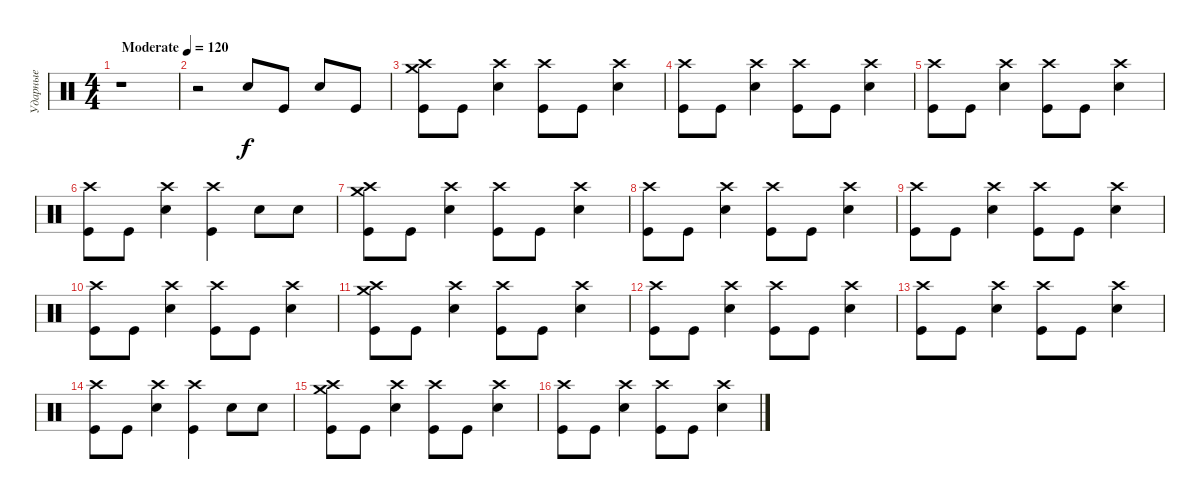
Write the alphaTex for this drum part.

\track ("Ударные" "Ударные") {instrument percussion}
\staff {score}
\articulation defaults
\ts (4 4)
\tempo (120 "Moderate")
\clef neutral
\ks c
r.1{dy f} |
r.2 "Snare (hit) 2".8 "Kick (hit)".8 "Snare (hit) 2".8 "Kick (hit)".8 |
("Crash medium (hit)" "Crash high (hit)" "Kick (hit)").8 "Kick (hit)".8 ("Crash high (hit)" "Snare (hit) 2").4 ("Crash high (hit)" "Kick (hit)").8 "Kick (hit)".8 ("Crash high (hit)" "Snare (hit) 2").4 |
("Crash high (hit)" "Kick (hit)").8 "Kick (hit)".8 ("Crash high (hit)" "Snare (hit) 2").4 ("Crash high (hit)" "Kick (hit)").8 "Kick (hit)".8 ("Crash high (hit)" "Snare (hit) 2").4 |
("Crash high (hit)" "Kick (hit)").8 "Kick (hit)".8 ("Crash high (hit)" "Snare (hit) 2").4 ("Crash high (hit)" "Kick (hit)").8 "Kick (hit)".8 ("Crash high (hit)" "Snare (hit) 2").4 |
("Crash high (hit)" "Kick (hit)").8 "Kick (hit)".8 ("Crash high (hit)" "Snare (hit) 2").4 ("Crash high (hit)" "Kick (hit)").4 "Snare (hit) 2".8 "Snare (hit) 2".8 |
("Crash medium (hit)" "Crash high (hit)" "Kick (hit)").8 "Kick (hit)".8 ("Crash high (hit)" "Snare (hit) 2").4 ("Crash high (hit)" "Kick (hit)").8 "Kick (hit)".8 ("Crash high (hit)" "Snare (hit) 2").4 |
("Crash high (hit)" "Kick (hit)").8 "Kick (hit)".8 ("Crash high (hit)" "Snare (hit) 2").4 ("Crash high (hit)" "Kick (hit)").8 "Kick (hit)".8 ("Crash high (hit)" "Snare (hit) 2").4 |
("Crash high (hit)" "Kick (hit)").8 "Kick (hit)".8 ("Crash high (hit)" "Snare (hit) 2").4 ("Crash high (hit)" "Kick (hit)").8 "Kick (hit)".8 ("Crash high (hit)" "Snare (hit) 2").4 |
("Crash high (hit)" "Kick (hit)").8 "Kick (hit)".8 ("Crash high (hit)" "Snare (hit) 2").4 ("Crash high (hit)" "Kick (hit)").8 "Kick (hit)".8 ("Crash high (hit)" "Snare (hit) 2").4 |
("Crash medium (hit)" "Crash high (hit)" "Kick (hit)").8 "Kick (hit)".8 ("Crash high (hit)" "Snare (hit) 2").4 ("Crash high (hit)" "Kick (hit)").8 "Kick (hit)".8 ("Crash high (hit)" "Snare (hit) 2").4 |
("Crash high (hit)" "Kick (hit)").8 "Kick (hit)".8 ("Crash high (hit)" "Snare (hit) 2").4 ("Crash high (hit)" "Kick (hit)").8 "Kick (hit)".8 ("Crash high (hit)" "Snare (hit) 2").4 |
("Crash high (hit)" "Kick (hit)").8 "Kick (hit)".8 ("Crash high (hit)" "Snare (hit) 2").4 ("Crash high (hit)" "Kick (hit)").8 "Kick (hit)".8 ("Crash high (hit)" "Snare (hit) 2").4 |
("Crash high (hit)" "Kick (hit)").8 "Kick (hit)".8 ("Crash high (hit)" "Snare (hit) 2").4 ("Crash high (hit)" "Kick (hit)").4 "Snare (hit) 2".8 "Snare (hit) 2".8 |
("Crash medium (hit)" "Crash high (hit)" "Kick (hit)").8 "Kick (hit)".8 ("Crash high (hit)" "Snare (hit) 2").4 ("Crash high (hit)" "Kick (hit)").8 "Kick (hit)".8 ("Crash high (hit)" "Snare (hit) 2").4 |
("Crash high (hit)" "Kick (hit)").8 "Kick (hit)".8 ("Crash high (hit)" "Snare (hit) 2").4 ("Crash high (hit)" "Kick (hit)").8 "Kick (hit)".8 ("Crash high (hit)" "Snare (hit) 2").4
